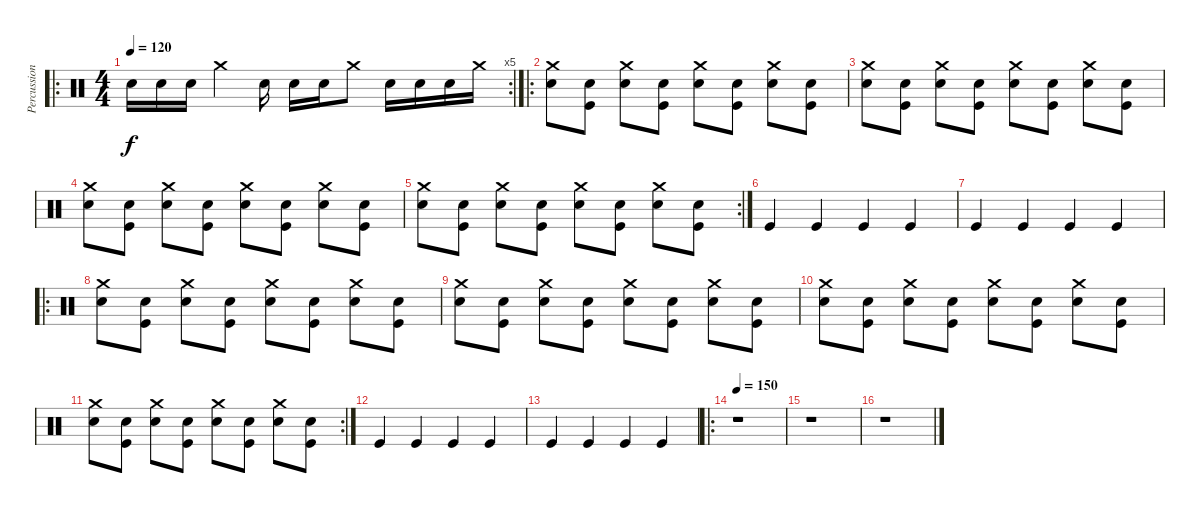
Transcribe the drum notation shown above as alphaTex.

\track ("Percussion" "Percussion") {instrument percussion}
\staff {score}
\articulation defaults
\ro
\rc 5
\ts (4 4)
\tempo 120
\tempo 170
\tempo 120
\clef neutral
\ks c "Electric Snare (hit)".16{dy f} "Electric Snare (hit)".16 "Electric Snare (hit)".16 "Crash medium (hit)".4 "Electric Snare (hit)".16 "Electric Snare (hit)".16 "Electric Snare (hit)".16 "Crash medium (hit)".8 "Electric Snare (hit)".16 "Electric Snare (hit)".16 "Electric Snare (hit)".16 "Crash medium (hit)".16
|
\ro
("Electric Snare (hit)" "Crash medium (hit)").8 ("Electric Snare (hit)" "Kick (hit)").8 ("Electric Snare (hit)" "Crash medium (hit)").8 ("Electric Snare (hit)" "Kick (hit)").8 ("Electric Snare (hit)" "Crash medium (hit)").8 ("Electric Snare (hit)" "Kick (hit)").8 ("Electric Snare (hit)" "Crash medium (hit)").8 ("Electric Snare (hit)" "Kick (hit)").8 |
("Electric Snare (hit)" "Crash medium (hit)").8 ("Electric Snare (hit)" "Kick (hit)").8 ("Electric Snare (hit)" "Crash medium (hit)").8 ("Electric Snare (hit)" "Kick (hit)").8 ("Electric Snare (hit)" "Crash medium (hit)").8 ("Electric Snare (hit)" "Kick (hit)").8 ("Electric Snare (hit)" "Crash medium (hit)").8 ("Electric Snare (hit)" "Kick (hit)").8 |
("Electric Snare (hit)" "Crash medium (hit)").8 ("Electric Snare (hit)" "Kick (hit)").8 ("Electric Snare (hit)" "Crash medium (hit)").8 ("Electric Snare (hit)" "Kick (hit)").8 ("Electric Snare (hit)" "Crash medium (hit)").8 ("Electric Snare (hit)" "Kick (hit)").8 ("Electric Snare (hit)" "Crash medium (hit)").8 ("Electric Snare (hit)" "Kick (hit)").8 |
\rc 2
("Electric Snare (hit)" "Crash medium (hit)").8 ("Electric Snare (hit)" "Kick (hit)").8 ("Electric Snare (hit)" "Crash medium (hit)").8 ("Electric Snare (hit)" "Kick (hit)").8 ("Electric Snare (hit)" "Crash medium (hit)").8 ("Electric Snare (hit)" "Kick (hit)").8 ("Electric Snare (hit)" "Crash medium (hit)").8 ("Electric Snare (hit)" "Kick (hit)").8 |
"Kick (hit)".4 "Kick (hit)".4 "Kick (hit)".4 "Kick (hit)".4 |
"Kick (hit)".4 "Kick (hit)".4 "Kick (hit)".4 "Kick (hit)".4 |
\ro
("Electric Snare (hit)" "Crash medium (hit)").8 ("Electric Snare (hit)" "Kick (hit)").8 ("Electric Snare (hit)" "Crash medium (hit)").8 ("Electric Snare (hit)" "Kick (hit)").8 ("Electric Snare (hit)" "Crash medium (hit)").8 ("Electric Snare (hit)" "Kick (hit)").8 ("Electric Snare (hit)" "Crash medium (hit)").8 ("Electric Snare (hit)" "Kick (hit)").8 |
("Electric Snare (hit)" "Crash medium (hit)").8 ("Electric Snare (hit)" "Kick (hit)").8 ("Electric Snare (hit)" "Crash medium (hit)").8 ("Electric Snare (hit)" "Kick (hit)").8 ("Electric Snare (hit)" "Crash medium (hit)").8 ("Electric Snare (hit)" "Kick (hit)").8 ("Electric Snare (hit)" "Crash medium (hit)").8 ("Electric Snare (hit)" "Kick (hit)").8 |
("Electric Snare (hit)" "Crash medium (hit)").8 ("Electric Snare (hit)" "Kick (hit)").8 ("Electric Snare (hit)" "Crash medium (hit)").8 ("Electric Snare (hit)" "Kick (hit)").8 ("Electric Snare (hit)" "Crash medium (hit)").8 ("Electric Snare (hit)" "Kick (hit)").8 ("Electric Snare (hit)" "Crash medium (hit)").8 ("Electric Snare (hit)" "Kick (hit)").8 |
\rc 2
("Electric Snare (hit)" "Crash medium (hit)").8 ("Electric Snare (hit)" "Kick (hit)").8 ("Electric Snare (hit)" "Crash medium (hit)").8 ("Electric Snare (hit)" "Kick (hit)").8 ("Electric Snare (hit)" "Crash medium (hit)").8 ("Electric Snare (hit)" "Kick (hit)").8 ("Electric Snare (hit)" "Crash medium (hit)").8 ("Electric Snare (hit)" "Kick (hit)").8 |
"Kick (hit)".4 "Kick (hit)".4 "Kick (hit)".4 "Kick (hit)".4 |
"Kick (hit)".4 "Kick (hit)".4 "Kick (hit)".4 "Kick (hit)".4 |
\ro
\tempo 150
r.1 |
r.1 |
r.1
